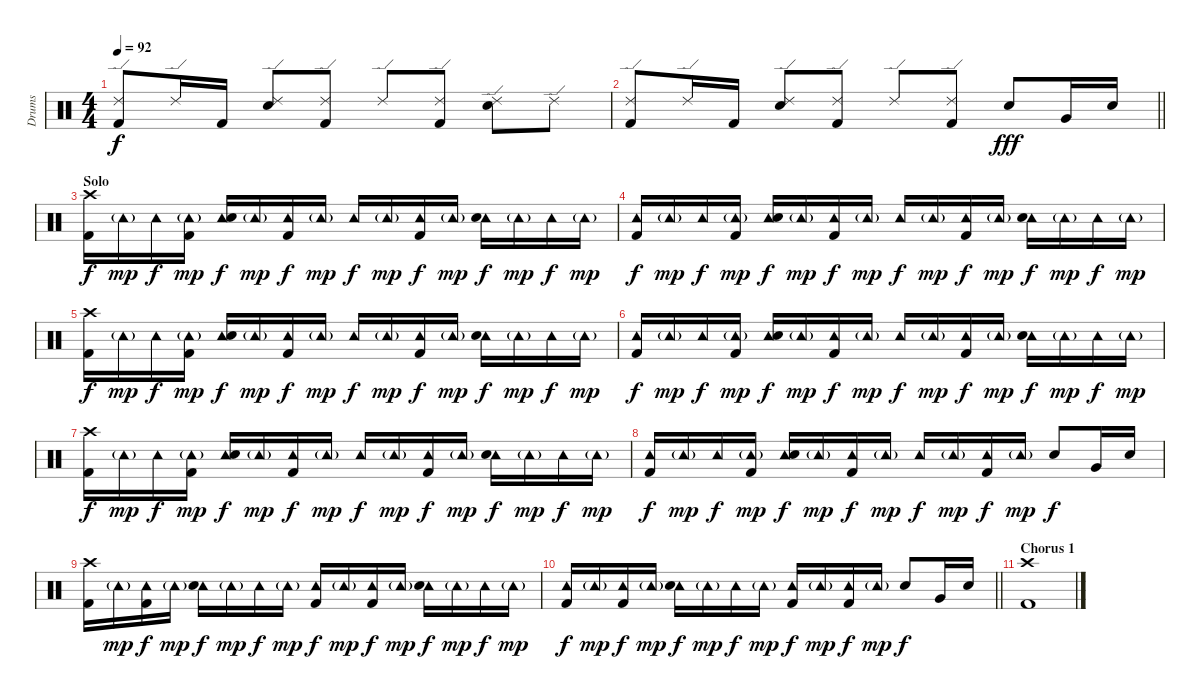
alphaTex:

\track ("Drums" "Drums") {instrument percussion}
\staff {score}
\articulation defaults
\ts (4 4)
\tempo 92
\clef neutral
\ks c
("Ride (edge) 2" "Kick (hit) 2").8{dy f} "Ride (edge) 2".16 "Kick (hit) 2".16 ("Ride (edge) 2" "Electric Snare (hit)").8 ("Ride (edge) 2" "Kick (hit) 2").8 "Ride (edge) 2".8 ("Ride (edge) 2" "Kick (hit) 2").8 ("Ride (edge) 2" "Electric Snare (hit)").8 "Ride (edge) 2".8 |
\barLineRight lightlight
("Ride (edge) 2" "Kick (hit) 2").8 "Ride (edge) 2".16 "Kick (hit) 2".16 ("Ride (edge) 2" "Electric Snare (hit)").8 ("Ride (edge) 2" "Kick (hit) 2").8 "Ride (edge) 2".8 ("Ride (edge) 2" "Kick (hit) 2").8 "Electric Snare (hit)".8{dy fff} "Very Low Tom (hit)".16 "Electric Snare (hit)".16 |
\section ("" "Solo")
("Crash high (hit)" "Kick (hit) 2").16{dy f} "Tambourine (hit)"{g}.16{dy mp} "Tambourine (hit)".16{dy f} ("Tambourine (hit)"{g} "Kick (hit) 2").16{dy mp} ("Tambourine (hit)" "Electric Snare (hit)").16{dy f} "Tambourine (hit)"{g}.16{dy mp} ("Tambourine (hit)" "Kick (hit) 2").16{dy f} "Tambourine (hit)"{g}.16{dy mp} "Tambourine (hit)".16{dy f} "Tambourine (hit)"{g}.16{dy mp} ("Tambourine (hit)" "Kick (hit) 2").16{dy f} "Tambourine (hit)"{g}.16{dy mp} ("Tambourine (hit)" "Electric Snare (hit)").16{dy f} "Tambourine (hit)"{g}.16{dy mp} "Tambourine (hit)".16{dy f} "Tambourine (hit)"{g}.16{dy mp} |
("Tambourine (hit)" "Kick (hit) 2").16{dy f} "Tambourine (hit)"{g}.16{dy mp} "Tambourine (hit)".16{dy f} ("Tambourine (hit)"{g} "Kick (hit) 2").16{dy mp} ("Tambourine (hit)" "Electric Snare (hit)").16{dy f} "Tambourine (hit)"{g}.16{dy mp} ("Tambourine (hit)" "Kick (hit) 2").16{dy f} "Tambourine (hit)"{g}.16{dy mp} "Tambourine (hit)".16{dy f} "Tambourine (hit)"{g}.16{dy mp} ("Tambourine (hit)" "Kick (hit) 2").16{dy f} "Tambourine (hit)"{g}.16{dy mp} ("Tambourine (hit)" "Electric Snare (hit)").16{dy f} "Tambourine (hit)"{g}.16{dy mp} "Tambourine (hit)".16{dy f} "Tambourine (hit)"{g}.16{dy mp} |
("Crash high (hit)" "Kick (hit) 2").16{dy f} "Tambourine (hit)"{g}.16{dy mp} "Tambourine (hit)".16{dy f} ("Tambourine (hit)"{g} "Kick (hit) 2").16{dy mp} ("Tambourine (hit)" "Electric Snare (hit)").16{dy f} "Tambourine (hit)"{g}.16{dy mp} ("Tambourine (hit)" "Kick (hit) 2").16{dy f} "Tambourine (hit)"{g}.16{dy mp} "Tambourine (hit)".16{dy f} "Tambourine (hit)"{g}.16{dy mp} ("Tambourine (hit)" "Kick (hit) 2").16{dy f} "Tambourine (hit)"{g}.16{dy mp} ("Tambourine (hit)" "Electric Snare (hit)").16{dy f} "Tambourine (hit)"{g}.16{dy mp} "Tambourine (hit)".16{dy f} "Tambourine (hit)"{g}.16{dy mp} |
("Tambourine (hit)" "Kick (hit) 2").16{dy f} "Tambourine (hit)"{g}.16{dy mp} "Tambourine (hit)".16{dy f} ("Tambourine (hit)"{g} "Kick (hit) 2").16{dy mp} ("Tambourine (hit)" "Electric Snare (hit)").16{dy f} "Tambourine (hit)"{g}.16{dy mp} ("Tambourine (hit)" "Kick (hit) 2").16{dy f} "Tambourine (hit)"{g}.16{dy mp} "Tambourine (hit)".16{dy f} "Tambourine (hit)"{g}.16{dy mp} ("Tambourine (hit)" "Kick (hit) 2").16{dy f} "Tambourine (hit)"{g}.16{dy mp} ("Tambourine (hit)" "Electric Snare (hit)").16{dy f} "Tambourine (hit)"{g}.16{dy mp} "Tambourine (hit)".16{dy f} "Tambourine (hit)"{g}.16{dy mp} |
("Crash high (hit)" "Kick (hit) 2").16{dy f} "Tambourine (hit)"{g}.16{dy mp} "Tambourine (hit)".16{dy f} ("Tambourine (hit)"{g} "Kick (hit) 2").16{dy mp} ("Tambourine (hit)" "Electric Snare (hit)").16{dy f} "Tambourine (hit)"{g}.16{dy mp} ("Tambourine (hit)" "Kick (hit) 2").16{dy f} "Tambourine (hit)"{g}.16{dy mp} "Tambourine (hit)".16{dy f} "Tambourine (hit)"{g}.16{dy mp} ("Tambourine (hit)" "Kick (hit) 2").16{dy f} "Tambourine (hit)"{g}.16{dy mp} ("Tambourine (hit)" "Electric Snare (hit)").16{dy f} "Tambourine (hit)"{g}.16{dy mp} "Tambourine (hit)".16{dy f} "Tambourine (hit)"{g}.16{dy mp} |
("Tambourine (hit)" "Kick (hit) 2").16{dy f} "Tambourine (hit)"{g}.16{dy mp} "Tambourine (hit)".16{dy f} ("Tambourine (hit)"{g} "Kick (hit) 2").16{dy mp} ("Tambourine (hit)" "Electric Snare (hit)").16{dy f} "Tambourine (hit)"{g}.16{dy mp} ("Tambourine (hit)" "Kick (hit) 2").16{dy f} "Tambourine (hit)"{g}.16{dy mp} "Tambourine (hit)".16{dy f} "Tambourine (hit)"{g}.16{dy mp} ("Tambourine (hit)" "Kick (hit) 2").16{dy f} "Tambourine (hit)"{g}.16{dy mp} "Electric Snare (hit)".8{dy f} "Very Low Tom (hit)".16 "Electric Snare (hit)".16 |
("Crash high (hit)" "Kick (hit) 2").16 "Tambourine (hit)"{g}.16{dy mp} ("Tambourine (hit)" "Kick (hit) 2").16{dy f} "Tambourine (hit)"{g}.16{dy mp} ("Tambourine (hit)" "Electric Snare (hit)").16{dy f} "Tambourine (hit)"{g}.16{dy mp} "Tambourine (hit)".16{dy f} "Tambourine (hit)"{g}.16{dy mp} ("Tambourine (hit)" "Kick (hit) 2").16{dy f} "Tambourine (hit)"{g}.16{dy mp} ("Tambourine (hit)" "Kick (hit) 2").16{dy f} "Tambourine (hit)"{g}.16{dy mp} ("Tambourine (hit)" "Electric Snare (hit)").16{dy f} "Tambourine (hit)"{g}.16{dy mp} "Tambourine (hit)".16{dy f} "Tambourine (hit)"{g}.16{dy mp} |
\barLineRight lightlight
("Tambourine (hit)" "Kick (hit) 2").16{dy f} "Tambourine (hit)"{g}.16{dy mp} ("Tambourine (hit)" "Kick (hit) 2").16{dy f} "Tambourine (hit)"{g}.16{dy mp} ("Tambourine (hit)" "Electric Snare (hit)").16{dy f} "Tambourine (hit)"{g}.16{dy mp} "Tambourine (hit)".16{dy f} "Tambourine (hit)"{g}.16{dy mp} ("Tambourine (hit)" "Kick (hit) 2").16{dy f} "Tambourine (hit)"{g}.16{dy mp} ("Tambourine (hit)" "Kick (hit) 2").16{dy f} "Tambourine (hit)"{g}.16{dy mp} "Electric Snare (hit)".8{dy f} "Very Low Tom (hit)".16 "Electric Snare (hit)".16 |
\section ("" "Chorus 1")
("Crash high (hit)" "Kick (hit) 2").1
